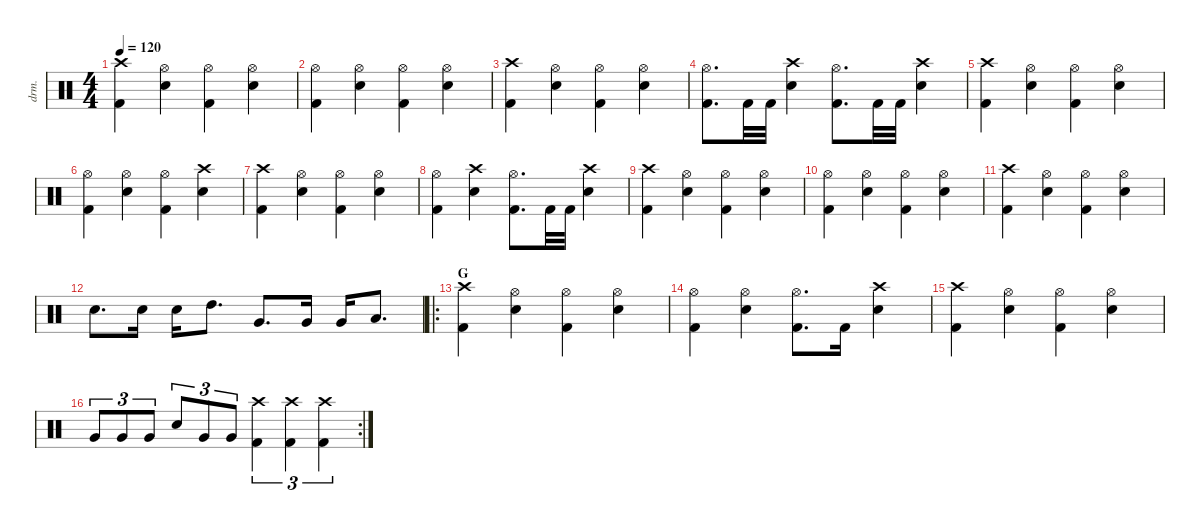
\defaultSystemsLayout 4
\hideDynamics
\bracketExtendMode nobrackets
\track ("Drums" "drm.") {instrument percussion}
\staff {score}
\articulation defaults
\ts (4 4)
\tempo 120
\clef neutral
\ks c
("Crash high (hit)" "Kick (hit) 2").4{dy f} ("Hi-Hat (open)" "Snare (hit) 2").4 ("Hi-Hat (open)" "Kick (hit) 2").4 ("Hi-Hat (open)" "Snare (hit) 2").4 |
("Hi-Hat (open)" "Kick (hit) 2").4 ("Hi-Hat (open)" "Snare (hit) 2").4 ("Hi-Hat (open)" "Kick (hit) 2").4 ("Hi-Hat (open)" "Snare (hit) 2").4 |
("Crash high (hit)" "Kick (hit) 2").4 ("Hi-Hat (open)" "Snare (hit) 2").4 ("Hi-Hat (open)" "Kick (hit) 2").4 ("Hi-Hat (open)" "Snare (hit) 2").4 |
("Hi-Hat (open)" "Kick (hit) 2").8{d} "Kick (hit) 2".32 "Kick (hit) 2".32 ("Crash high (hit)" "Snare (hit) 2").4 ("Hi-Hat (open)" "Kick (hit) 2").8{d} "Kick (hit) 2".32 "Kick (hit) 2".32 ("Crash high (hit)" "Snare (hit) 2").4 |
("Crash high (hit)" "Kick (hit) 2").4 ("Hi-Hat (open)" "Snare (hit) 2").4 ("Hi-Hat (open)" "Kick (hit) 2").4 ("Hi-Hat (open)" "Snare (hit) 2").4 |
("Hi-Hat (open)" "Kick (hit) 2").4 ("Hi-Hat (open)" "Snare (hit) 2").4 ("Hi-Hat (open)" "Kick (hit) 2").4 ("Crash high (hit)" "Snare (hit) 2").4 |
("Crash high (hit)" "Kick (hit) 2").4 ("Hi-Hat (open)" "Snare (hit) 2").4 ("Hi-Hat (open)" "Kick (hit) 2").4 ("Hi-Hat (open)" "Snare (hit) 2").4 |
("Hi-Hat (open)" "Kick (hit) 2").4 ("Crash high (hit)" "Snare (hit) 2").4 ("Hi-Hat (open)" "Kick (hit) 2").8{d} "Kick (hit) 2".32 "Kick (hit) 2".32 ("Crash high (hit)" "Snare (hit) 2").4 |
("Crash high (hit)" "Kick (hit) 2").4 ("Hi-Hat (open)" "Snare (hit) 2").4 ("Hi-Hat (open)" "Kick (hit) 2").4 ("Hi-Hat (open)" "Snare (hit) 2").4 |
("Hi-Hat (open)" "Kick (hit) 2").4 ("Hi-Hat (open)" "Snare (hit) 2").4 ("Hi-Hat (open)" "Kick (hit) 2").4 ("Hi-Hat (open)" "Snare (hit) 2").4 |
("Crash high (hit)" "Kick (hit) 2").4 ("Hi-Hat (open)" "Snare (hit) 2").4 ("Hi-Hat (open)" "Kick (hit) 2").4 ("Hi-Hat (open)" "Snare (hit) 2").4 |
"Snare (hit) 2".8{d} "Snare (hit) 2".16 "Snare (hit) 2".16 "High Tom (hit)".8{d} "Very Low Tom (hit)".8{d} "Very Low Tom (hit)".16 "Very Low Tom (hit)".16 "Low Floor Tom (hit)".8{d} |
\ro
\section ("" "G")
("Crash high (hit)" "Kick (hit) 2").4 ("Hi-Hat (open)" "Snare (hit) 2").4 ("Hi-Hat (open)" "Kick (hit) 2").4 ("Hi-Hat (open)" "Snare (hit) 2").4 |
("Hi-Hat (open)" "Kick (hit) 2").4 ("Hi-Hat (open)" "Snare (hit) 2").4 ("Hi-Hat (open)" "Kick (hit) 2").8{d} "Kick (hit) 2".16 ("Crash high (hit)" "Snare (hit) 2").4 |
("Crash high (hit)" "Kick (hit) 2").4 ("Hi-Hat (open)" "Snare (hit) 2").4 ("Hi-Hat (open)" "Kick (hit) 2").4 ("Hi-Hat (open)" "Snare (hit) 2").4 |
\rc 2 "Very Low Tom (hit)".8{tu (3 2)} "Very Low Tom (hit)".8{tu (3 2)} "Very Low Tom (hit)".8{tu (3 2)} "Snare (hit) 2".8{tu (3 2)} "Very Low Tom (hit)".8{tu (3 2)} "Very Low Tom (hit)".8{tu (3 2)}
("Crash high (hit)" "Kick (hit) 2").4{tu (3 2)} ("Crash high (hit)" "Kick (hit) 2").4{tu (3 2)} ("Crash high (hit)" "Kick (hit) 2").4{tu (3 2)}
